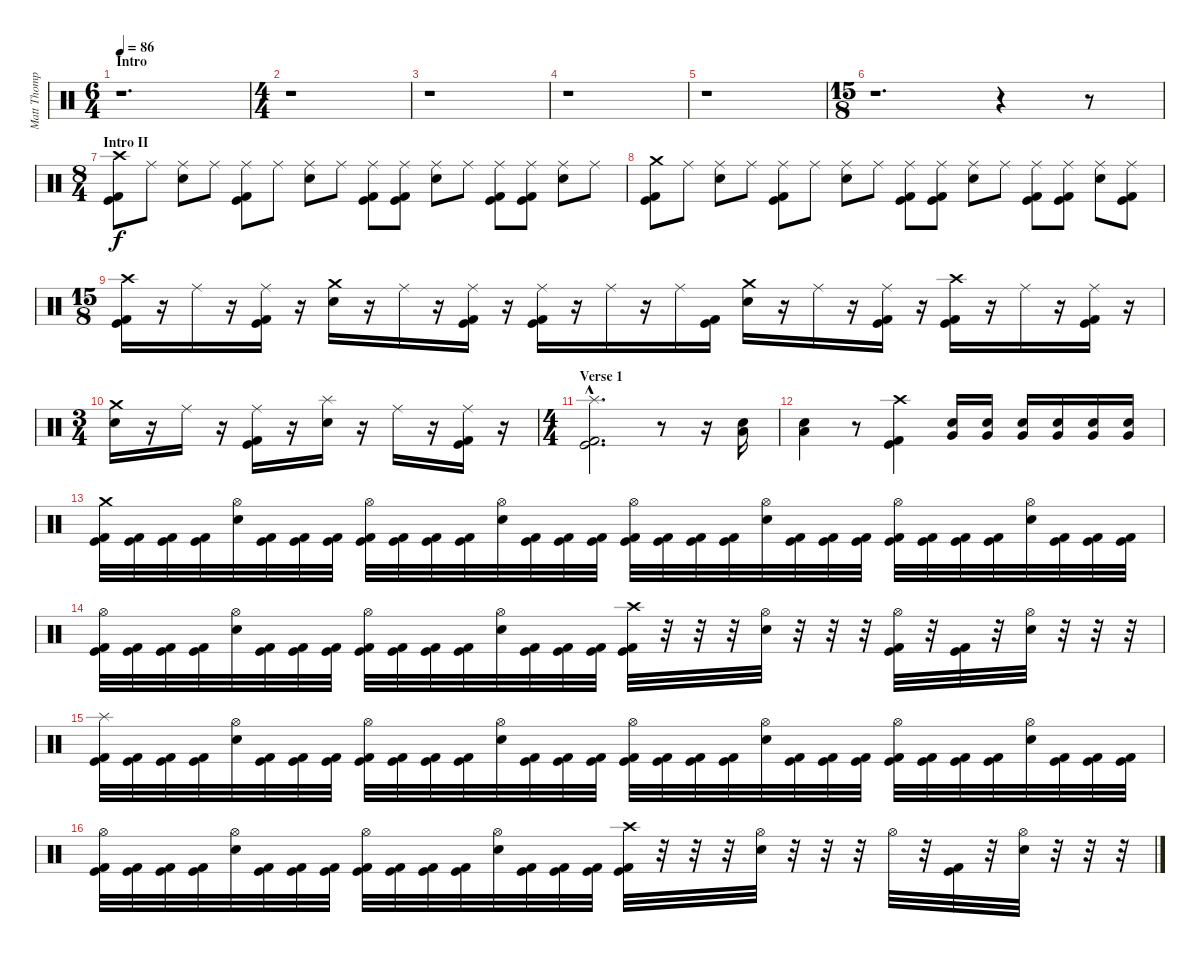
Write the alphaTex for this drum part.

\track ("Matt Thompson" "Matt Thomp") {instrument percussion}
\staff {score}
\articulation defaults
\ts (6 4)
\section ("" "Intro")
\tempo 86
\clef neutral
\ks c
r.1{d dy f} |
\ts (4 4)
r.1 |
r.1 |
r.1 |
r.1 |
\ts (15 8)
r.1{d} r.4 r.8 |
\ts (8 4)
\section ("" "Intro II")
("Crash high (hit)" "Kick (hit)" "Kick (hit) 2").8 "Ride (middle)".8 ("Ride (middle)" "Snare (hit) 2").8 "Ride (middle)".8 ("Ride (middle)" "Kick (hit)" "Kick (hit) 2").8 "Ride (middle)".8 ("Ride (middle)" "Snare (hit) 2").8 "Ride (middle)".8 ("Ride (middle)" "Kick (hit)" "Kick (hit) 2").8 ("Ride (middle)" "Kick (hit)" "Kick (hit) 2").8 ("Ride (middle)" "Snare (hit) 2").8 "Ride (middle)".8 ("Ride (middle)" "Kick (hit)" "Kick (hit) 2").8 ("Ride (middle)" "Kick (hit)" "Kick (hit) 2").8 ("Ride (middle)" "Snare (hit) 2").8 "Ride (middle)".8 |
("Crash medium (hit)" "Kick (hit)" "Kick (hit) 2").8 "Ride (middle)".8 ("Ride (middle)" "Snare (hit) 2").8 "Ride (middle)".8 ("Ride (middle)" "Kick (hit)" "Kick (hit) 2").8 "Ride (middle)".8 ("Ride (middle)" "Snare (hit) 2").8 "Ride (middle)".8 ("Ride (middle)" "Kick (hit)" "Kick (hit) 2").8 ("Ride (middle)" "Kick (hit)" "Kick (hit) 2").8 ("Ride (middle)" "Snare (hit) 2").8 "Ride (middle)".8 ("Ride (middle)" "Kick (hit)" "Kick (hit) 2").8 ("Ride (middle)" "Kick (hit)" "Kick (hit) 2").8 ("Ride (middle)" "Snare (hit) 2").8 ("Ride (middle)" "Kick (hit)" "Kick (hit) 2").8 |
\ts (15 8)
("Crash high (hit)" "Kick (hit)" "Kick (hit) 2").16 r.16 "Ride (middle)".16 r.16 ("Ride (middle)" "Kick (hit)" "Kick (hit) 2").16 r.16 ("Crash medium (hit)" "Snare (hit) 2").16 r.16 "Ride (middle)".16 r.16 ("Ride (middle)" "Kick (hit)" "Kick (hit) 2").16 r.16 ("Ride (middle)" "Kick (hit)" "Kick (hit) 2").16 r.16 "Ride (middle)".16 r.16 "Ride (middle)".16 ("Kick (hit)" "Kick (hit) 2").16 ("Crash medium (hit)" "Snare (hit) 2").16 r.16 "Ride (middle)".16 r.16 ("Ride (middle)" "Kick (hit)" "Kick (hit) 2").16 r.16 ("Crash high (hit)" "Kick (hit)" "Kick (hit) 2").16 r.16 "Ride (middle)".16 r.16 ("Ride (middle)" "Kick (hit)" "Kick (hit) 2").16 r.16 |
\ts (3 4)
("Crash medium (hit)" "Snare (hit) 2").16 r.16 "Ride (middle)".16 r.16 ("Ride (middle)" "Kick (hit)" "Kick (hit) 2").16 r.16 ("Splash (hit)" "Snare (hit) 2").16 r.16 "Ride (middle)".16 r.16 ("Ride (middle)" "Kick (hit)" "Kick (hit) 2").16 r.16 |
\ts (4 4)
\section ("" "Verse 1")
("Splash (hit)"{hac} "Kick (hit)"{hac} "Kick (hit) 2"{hac}).2{d} r.8 r.16 ("Low Tom (hit)" "Snare (hit) 2").16 |
("Low Tom (hit)" "Snare (hit) 2").4 r.8 ("Crash high (hit)" "Kick (hit)" "Kick (hit) 2").4 ("Very Low Tom (hit)" "Snare (hit) 2").16 ("Very Low Tom (hit)" "Snare (hit) 2").16 ("Very Low Tom (hit)" "Snare (hit) 2").16 ("Very Low Tom (hit)" "Snare (hit) 2").16 ("Very Low Tom (hit)" "Snare (hit) 2").16 ("Very Low Tom (hit)" "Snare (hit) 2").16 |
("Crash medium (hit)" "Kick (hit)" "Kick (hit) 2").32 ("Kick (hit)" "Kick (hit) 2").32 ("Kick (hit)" "Kick (hit) 2").32 ("Kick (hit)" "Kick (hit) 2").32 ("Hi-Hat (open)" "Snare (hit) 2").32 ("Kick (hit)" "Kick (hit) 2").32 ("Kick (hit)" "Kick (hit) 2").32 ("Kick (hit)" "Kick (hit) 2").32 ("Hi-Hat (open)" "Kick (hit)" "Kick (hit) 2").32 ("Kick (hit)" "Kick (hit) 2").32 ("Kick (hit)" "Kick (hit) 2").32 ("Kick (hit)" "Kick (hit) 2").32 ("Hi-Hat (open)" "Snare (hit) 2").32 ("Kick (hit)" "Kick (hit) 2").32 ("Kick (hit)" "Kick (hit) 2").32 ("Kick (hit)" "Kick (hit) 2").32 ("Hi-Hat (open)" "Kick (hit)" "Kick (hit) 2").32 ("Kick (hit)" "Kick (hit) 2").32 ("Kick (hit)" "Kick (hit) 2").32 ("Kick (hit)" "Kick (hit) 2").32 ("Hi-Hat (open)" "Snare (hit) 2").32 ("Kick (hit)" "Kick (hit) 2").32 ("Kick (hit)" "Kick (hit) 2").32 ("Kick (hit)" "Kick (hit) 2").32 ("Hi-Hat (open)" "Kick (hit)" "Kick (hit) 2").32 ("Kick (hit)" "Kick (hit) 2").32 ("Kick (hit)" "Kick (hit) 2").32 ("Kick (hit)" "Kick (hit) 2").32 ("Hi-Hat (open)" "Snare (hit) 2").32 ("Kick (hit)" "Kick (hit) 2").32 ("Kick (hit)" "Kick (hit) 2").32 ("Kick (hit)" "Kick (hit) 2").32 |
("Hi-Hat (open)" "Kick (hit)" "Kick (hit) 2").32 ("Kick (hit)" "Kick (hit) 2").32 ("Kick (hit)" "Kick (hit) 2").32 ("Kick (hit)" "Kick (hit) 2").32 ("Hi-Hat (open)" "Snare (hit) 2").32 ("Kick (hit)" "Kick (hit) 2").32 ("Kick (hit)" "Kick (hit) 2").32 ("Kick (hit)" "Kick (hit) 2").32 ("Hi-Hat (open)" "Kick (hit)" "Kick (hit) 2").32 ("Kick (hit)" "Kick (hit) 2").32 ("Kick (hit)" "Kick (hit) 2").32 ("Kick (hit)" "Kick (hit) 2").32 ("Hi-Hat (open)" "Snare (hit) 2").32 ("Kick (hit)" "Kick (hit) 2").32 ("Kick (hit)" "Kick (hit) 2").32 ("Kick (hit)" "Kick (hit) 2").32 ("Crash high (hit)" "Kick (hit)" "Kick (hit) 2").32 r.32 r.32 r.32 ("Hi-Hat (open)" "Snare (hit) 2").32 r.32 r.32 r.32 ("Hi-Hat (open)" "Kick (hit)" "Kick (hit) 2").32 r.32 ("Kick (hit)" "Kick (hit) 2").32 r.32 ("Hi-Hat (open)" "Snare (hit) 2").32 r.32 r.32 r.32 |
("Splash (hit)" "Kick (hit)" "Kick (hit) 2").32 ("Kick (hit)" "Kick (hit) 2").32 ("Kick (hit)" "Kick (hit) 2").32 ("Kick (hit)" "Kick (hit) 2").32 ("Hi-Hat (open)" "Snare (hit) 2").32 ("Kick (hit)" "Kick (hit) 2").32 ("Kick (hit)" "Kick (hit) 2").32 ("Kick (hit)" "Kick (hit) 2").32 ("Hi-Hat (open)" "Kick (hit)" "Kick (hit) 2").32 ("Kick (hit)" "Kick (hit) 2").32 ("Kick (hit)" "Kick (hit) 2").32 ("Kick (hit)" "Kick (hit) 2").32 ("Hi-Hat (open)" "Snare (hit) 2").32 ("Kick (hit)" "Kick (hit) 2").32 ("Kick (hit)" "Kick (hit) 2").32 ("Kick (hit)" "Kick (hit) 2").32 ("Hi-Hat (open)" "Kick (hit)" "Kick (hit) 2").32 ("Kick (hit)" "Kick (hit) 2").32 ("Kick (hit)" "Kick (hit) 2").32 ("Kick (hit)" "Kick (hit) 2").32 ("Hi-Hat (open)" "Snare (hit) 2").32 ("Kick (hit)" "Kick (hit) 2").32 ("Kick (hit)" "Kick (hit) 2").32 ("Kick (hit)" "Kick (hit) 2").32 ("Hi-Hat (open)" "Kick (hit)" "Kick (hit) 2").32 ("Kick (hit)" "Kick (hit) 2").32 ("Kick (hit)" "Kick (hit) 2").32 ("Kick (hit)" "Kick (hit) 2").32 ("Hi-Hat (open)" "Snare (hit) 2").32 ("Kick (hit)" "Kick (hit) 2").32 ("Kick (hit)" "Kick (hit) 2").32 ("Kick (hit)" "Kick (hit) 2").32 |
("Hi-Hat (open)" "Kick (hit)" "Kick (hit) 2").32 ("Kick (hit)" "Kick (hit) 2").32 ("Kick (hit)" "Kick (hit) 2").32 ("Kick (hit)" "Kick (hit) 2").32 ("Hi-Hat (open)" "Snare (hit) 2").32 ("Kick (hit)" "Kick (hit) 2").32 ("Kick (hit)" "Kick (hit) 2").32 ("Kick (hit)" "Kick (hit) 2").32 ("Hi-Hat (open)" "Kick (hit)" "Kick (hit) 2").32 ("Kick (hit)" "Kick (hit) 2").32 ("Kick (hit)" "Kick (hit) 2").32 ("Kick (hit)" "Kick (hit) 2").32 ("Hi-Hat (open)" "Snare (hit) 2").32 ("Kick (hit)" "Kick (hit) 2").32 ("Kick (hit)" "Kick (hit) 2").32 ("Kick (hit)" "Kick (hit) 2").32 ("Crash high (hit)" "Kick (hit)" "Kick (hit) 2").32 r.32 r.32 r.32 ("Hi-Hat (open)" "Snare (hit) 2").32 r.32 r.32 r.32 "Hi-Hat (open)".32 r.32 ("Kick (hit)" "Kick (hit) 2").32 r.32 ("Hi-Hat (open)" "Snare (hit) 2").32 r.32 r.32 r.32
